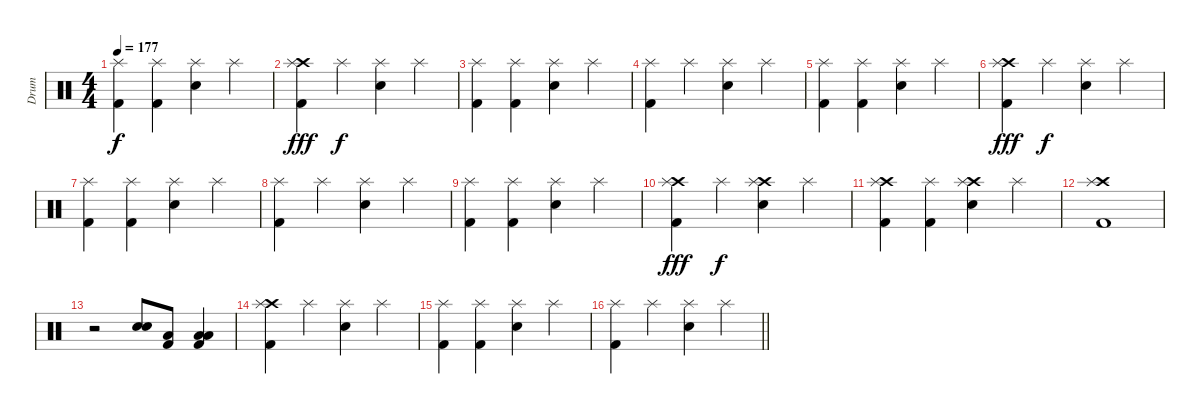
\track ("Drum" "Drum") {instrument percussion}
\staff {score}
\articulation defaults
\ts (4 4)
\tempo 177
\clef neutral
\ks c
("Splash (hit)" "Kick (hit) 2").4{dy f} ("Splash (hit)" "Kick (hit) 2").4 ("Snare (hit) 2" "Splash (hit)").4 "Splash (hit)".4 |
("Crash high (hit)" "Splash (hit)" "Kick (hit) 2").4{dy fff} "Splash (hit)".4{dy f} ("Snare (hit) 2" "Splash (hit)").4 "Splash (hit)".4 |
("Splash (hit)" "Kick (hit) 2").4 ("Splash (hit)" "Kick (hit) 2").4 ("Snare (hit) 2" "Splash (hit)").4 "Splash (hit)".4 |
("Splash (hit)" "Kick (hit) 2").4 "Splash (hit)".4 ("Snare (hit) 2" "Splash (hit)").4 "Splash (hit)".4 |
("Splash (hit)" "Kick (hit) 2").4 ("Splash (hit)" "Kick (hit) 2").4 ("Snare (hit) 2" "Splash (hit)").4 "Splash (hit)".4 |
("Crash high (hit)" "Splash (hit)" "Kick (hit) 2").4{dy fff} "Splash (hit)".4{dy f} ("Snare (hit) 2" "Splash (hit)").4 "Splash (hit)".4 |
("Splash (hit)" "Kick (hit) 2").4 ("Splash (hit)" "Kick (hit) 2").4 ("Snare (hit) 2" "Splash (hit)").4 "Splash (hit)".4 |
("Splash (hit)" "Kick (hit) 2").4 "Splash (hit)".4 ("Snare (hit) 2" "Splash (hit)").4 "Splash (hit)".4 |
("Splash (hit)" "Kick (hit) 2").4 ("Splash (hit)" "Kick (hit) 2").4 ("Snare (hit) 2" "Splash (hit)").4 "Splash (hit)".4 |
("Crash high (hit)" "Splash (hit)" "Kick (hit) 2").4{dy fff} "Splash (hit)".4{dy f} ("Crash high (hit)" "Snare (hit) 2" "Splash (hit)").4 "Splash (hit)".4 |
("Crash high (hit)" "Splash (hit)" "Kick (hit) 2").4 ("Splash (hit)" "Kick (hit) 2").4 ("Crash high (hit)" "Snare (hit) 2" "Splash (hit)").4 "Splash (hit)".4 |
("Crash high (hit)" "Splash (hit)" "Kick (hit) 2").1 |
r.2 ("Snare (hit) 2" "Snare (hit) 2").8 ("Low Floor Tom (hit)" "Kick (hit) 2").8 ("Low Floor Tom (hit)" "Low Floor Tom (hit)" "Kick (hit) 2").4 |
("Crash high (hit)" "Splash (hit)" "Kick (hit) 2").4 "Splash (hit)".4 ("Snare (hit) 2" "Splash (hit)").4 "Splash (hit)".4 |
("Splash (hit)" "Kick (hit) 2").4 ("Splash (hit)" "Kick (hit) 2").4 ("Snare (hit) 2" "Splash (hit)").4 "Splash (hit)".4 |
\barLineRight lightlight
("Splash (hit)" "Kick (hit) 2").4 "Splash (hit)".4 ("Snare (hit) 2" "Splash (hit)").4 "Splash (hit)".4
